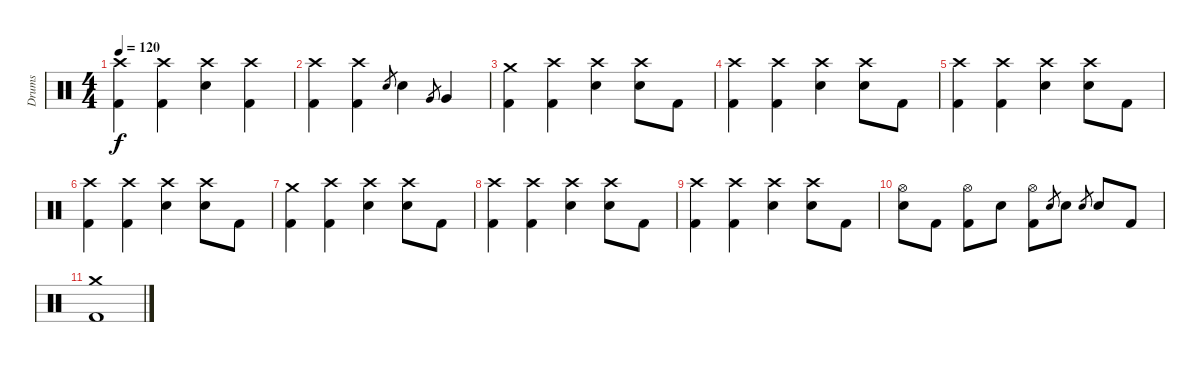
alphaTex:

\track ("Drums" "Drums") {instrument percussion}
\staff {score}
\articulation defaults
\ts (4 4)
\tempo 120
\clef neutral
\ks c
("Crash high (hit)" "Kick (hit) 2").4{dy f} ("Crash high (hit)" "Kick (hit) 2").4 ("Crash high (hit)" "Electric Snare (hit)").4 ("Crash high (hit)" "Kick (hit) 2").4 |
("Crash high (hit)" "Kick (hit) 2").4 ("Crash high (hit)" "Kick (hit) 2").4 "Electric Snare (hit)".8{gr} "Electric Snare (hit)".4 "Very Low Tom (hit)".8{gr} "Very Low Tom (hit)".4 |
("Crash medium (hit)" "Kick (hit) 2").4 ("Crash high (hit)" "Kick (hit) 2").4 ("Crash high (hit)" "Electric Snare (hit)").4 ("Crash high (hit)" "Electric Snare (hit)").8 "Kick (hit) 2".8 |
("Crash high (hit)" "Kick (hit) 2").4 ("Crash high (hit)" "Kick (hit) 2").4 ("Crash high (hit)" "Electric Snare (hit)").4 ("Crash high (hit)" "Electric Snare (hit)").8 "Kick (hit) 2".8 |
("Crash high (hit)" "Kick (hit) 2").4 ("Crash high (hit)" "Kick (hit) 2").4 ("Crash high (hit)" "Electric Snare (hit)").4 ("Crash high (hit)" "Electric Snare (hit)").8 "Kick (hit) 2".8 |
("Crash high (hit)" "Kick (hit) 2").4 ("Crash high (hit)" "Kick (hit) 2").4 ("Crash high (hit)" "Electric Snare (hit)").4 ("Crash high (hit)" "Electric Snare (hit)").8 "Kick (hit) 2".8 |
("Crash medium (hit)" "Kick (hit) 2").4 ("Crash high (hit)" "Kick (hit) 2").4 ("Crash high (hit)" "Electric Snare (hit)").4 ("Crash high (hit)" "Electric Snare (hit)").8 "Kick (hit) 2".8 |
("Crash high (hit)" "Kick (hit) 2").4 ("Crash high (hit)" "Kick (hit) 2").4 ("Crash high (hit)" "Electric Snare (hit)").4 ("Crash high (hit)" "Electric Snare (hit)").8 "Kick (hit) 2".8 |
("Crash high (hit)" "Kick (hit) 2").4 ("Crash high (hit)" "Kick (hit) 2").4 ("Crash high (hit)" "Electric Snare (hit)").4 ("Crash high (hit)" "Electric Snare (hit)").8 "Kick (hit) 2".8 |
("Hi-Hat (open)" "Electric Snare (hit)").8 "Kick (hit) 2".8 ("Hi-Hat (open)" "Kick (hit) 2").8 "Electric Snare (hit)".8 ("Hi-Hat (open)" "Kick (hit) 2").8 "Electric Snare (hit)".8{gr} "Electric Snare (hit)".8 "Electric Snare (hit)".8{gr} "Electric Snare (hit)".8 "Kick (hit) 2".8 |
("Crash medium (hit)" "Kick (hit) 2").1
